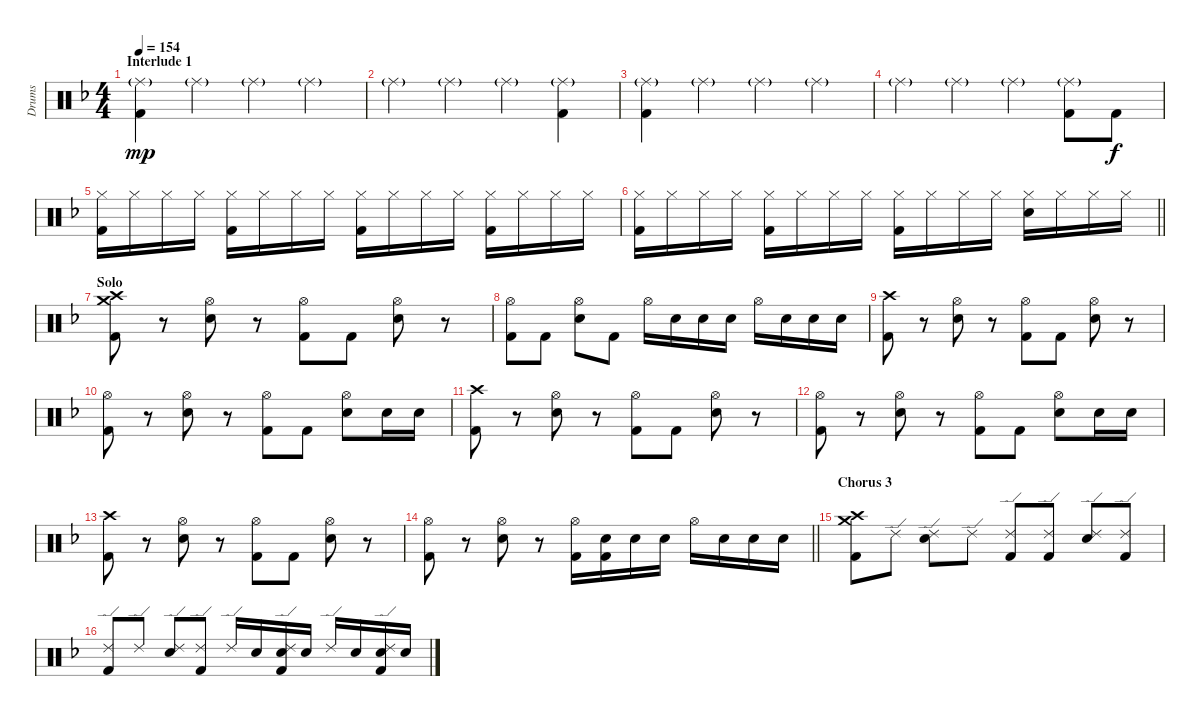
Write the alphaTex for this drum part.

\track ("Drums" "Drums") {instrument percussion}
\staff {score}
\articulation defaults
\ts (4 4)
\section ("" "Interlude 1")
\tempo 154
\clef neutral
\ks f
("Ride (middle)"{g} "Kick (hit) 2").4{dy mp} "Ride (middle)"{g}.4 "Ride (middle)"{g}.4 "Ride (middle)"{g}.4 |
"Ride (middle)"{g}.4 "Ride (middle)"{g}.4 "Ride (middle)"{g}.4 ("Ride (middle)"{g} "Kick (hit) 2").4 |
("Ride (middle)"{g} "Kick (hit) 2").4 "Ride (middle)"{g}.4 "Ride (middle)"{g}.4 "Ride (middle)"{g}.4 |
"Ride (middle)"{g}.4 "Ride (middle)"{g}.4 "Ride (middle)"{g}.4 ("Ride (middle)"{g} "Kick (hit) 2").8 "Kick (hit) 2".8{dy f} |
("Hi-Hat (closed)" "Kick (hit) 2").16 "Hi-Hat (closed)".16 "Hi-Hat (closed)".16 "Hi-Hat (closed)".16 ("Hi-Hat (closed)" "Kick (hit) 2").16 "Hi-Hat (closed)".16 "Hi-Hat (closed)".16 "Hi-Hat (closed)".16 ("Hi-Hat (closed)" "Kick (hit) 2").16 "Hi-Hat (closed)".16 "Hi-Hat (closed)".16 "Hi-Hat (closed)".16 ("Hi-Hat (closed)" "Kick (hit) 2").16 "Hi-Hat (closed)".16 "Hi-Hat (closed)".16 "Hi-Hat (closed)".16 |
\barLineRight lightlight
("Hi-Hat (closed)" "Kick (hit) 2").16 "Hi-Hat (closed)".16 "Hi-Hat (closed)".16 "Hi-Hat (closed)".16 ("Hi-Hat (closed)" "Kick (hit) 2").16 "Hi-Hat (closed)".16 "Hi-Hat (closed)".16 "Hi-Hat (closed)".16 ("Hi-Hat (closed)" "Kick (hit) 2").16 "Hi-Hat (closed)".16 "Hi-Hat (closed)".16 "Hi-Hat (closed)".16 ("Hi-Hat (closed)" "Electric Snare (hit)").16 "Hi-Hat (closed)".16 "Hi-Hat (closed)".16 "Hi-Hat (closed)".16 |
\section ("" "Solo")
("Crash high (hit)" "Crash medium (hit)" "Kick (hit) 2").8 r.8 ("Hi-Hat (open)" "Electric Snare (hit)").8 r.8 ("Hi-Hat (open)" "Kick (hit) 2").8 "Kick (hit) 2".8 ("Hi-Hat (open)" "Electric Snare (hit)").8 r.8 |
("Hi-Hat (open)" "Kick (hit) 2").8 "Kick (hit) 2".8 ("Hi-Hat (open)" "Electric Snare (hit)").8 "Kick (hit) 2".8 "Hi-Hat (open)".16 "Electric Snare (hit)".16 "Electric Snare (hit)".16 "Electric Snare (hit)".16 "Hi-Hat (open)".16 "Electric Snare (hit)".16 "Electric Snare (hit)".16 "Electric Snare (hit)".16 |
("Crash high (hit)" "Kick (hit) 2").8 r.8 ("Hi-Hat (open)" "Electric Snare (hit)").8 r.8 ("Hi-Hat (open)" "Kick (hit) 2").8 "Kick (hit) 2".8 ("Hi-Hat (open)" "Electric Snare (hit)").8 r.8 |
("Hi-Hat (open)" "Kick (hit) 2").8 r.8 ("Hi-Hat (open)" "Electric Snare (hit)").8 r.8 ("Hi-Hat (open)" "Kick (hit) 2").8 "Kick (hit) 2".8 ("Hi-Hat (open)" "Electric Snare (hit)").8 "Electric Snare (hit)".16 "Electric Snare (hit)".16 |
("Crash high (hit)" "Kick (hit) 2").8 r.8 ("Hi-Hat (open)" "Electric Snare (hit)").8 r.8 ("Hi-Hat (open)" "Kick (hit) 2").8 "Kick (hit) 2".8 ("Hi-Hat (open)" "Electric Snare (hit)").8 r.8 |
("Hi-Hat (open)" "Kick (hit) 2").8 r.8 ("Hi-Hat (open)" "Electric Snare (hit)").8 r.8 ("Hi-Hat (open)" "Kick (hit) 2").8 "Kick (hit) 2".8 ("Hi-Hat (open)" "Electric Snare (hit)").8 "Electric Snare (hit)".16 "Electric Snare (hit)".16 |
("Crash high (hit)" "Kick (hit) 2").8 r.8 ("Hi-Hat (open)" "Electric Snare (hit)").8 r.8 ("Hi-Hat (open)" "Kick (hit) 2").8 "Kick (hit) 2".8 ("Hi-Hat (open)" "Electric Snare (hit)").8 r.8 |
\barLineRight lightlight
("Hi-Hat (open)" "Kick (hit) 2").8 r.8 ("Hi-Hat (open)" "Electric Snare (hit)").8 r.8 ("Hi-Hat (open)" "Kick (hit) 2").16 ("Electric Snare (hit)" "Kick (hit) 2").16 "Electric Snare (hit)".16 "Electric Snare (hit)".16 "Hi-Hat (open)".16 "Electric Snare (hit)".16 "Electric Snare (hit)".16 "Electric Snare (hit)".16 |
\section ("" "Chorus 3")
("Crash high (hit)" "Crash medium (hit)" "Kick (hit) 2").8 "Ride (edge) 2".8 ("Ride (edge) 2" "Electric Snare (hit)").8 "Ride (edge) 2".8 ("Ride (edge) 2" "Kick (hit) 2").8 ("Ride (edge) 2" "Kick (hit) 2").8 ("Ride (edge) 2" "Electric Snare (hit)").8 ("Ride (edge) 2" "Kick (hit) 2").8 |
("Ride (edge) 2" "Kick (hit) 2").8 "Ride (edge) 2".8 ("Ride (edge) 2" "Electric Snare (hit)").8 ("Ride (edge) 2" "Kick (hit) 2").8 "Ride (edge) 2".16 "Electric Snare (hit)".16 ("Ride (edge) 2" "Electric Snare (hit)" "Kick (hit) 2").16 "Electric Snare (hit)".16 "Ride (edge) 2".16 "Electric Snare (hit)".16 ("Ride (edge) 2" "Electric Snare (hit)" "Kick (hit) 2").16 "Electric Snare (hit)".16
